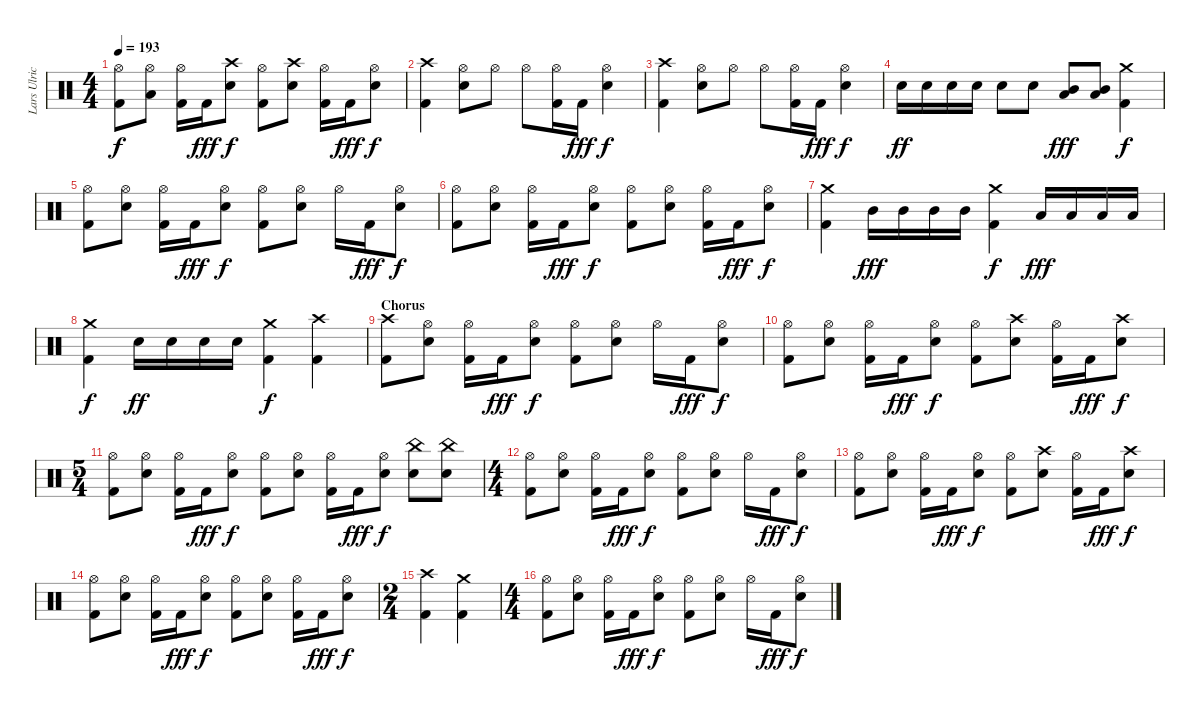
\track ("Lars Ulrich - Drums" "Lars Ulric") {instrument percussion}
\staff {score}
\articulation defaults
\ts (4 4)
\tempo 193
\clef neutral
\ks c
("Hi-Hat (open)" "Kick (hit) 2").8{dy f} ("Hi-Hat (open)" "Low Floor Tom (hit)").8 ("Hi-Hat (open)" "Kick (hit) 2").16 "Kick (hit) 2".16{dy fff} ("Crash high (hit)" "Snare (hit) 2").8{dy f} ("Hi-Hat (open)" "Kick (hit) 2").8 ("Crash high (hit)" "Snare (hit) 2").8 ("Hi-Hat (open)" "Kick (hit) 2").16 "Kick (hit) 2".16{dy fff} ("Hi-Hat (open)" "Snare (hit) 2").8{dy f} |
("Crash high (hit)" "Kick (hit) 2").4 ("Hi-Hat (open)" "Snare (hit) 2").8 "Hi-Hat (open)".8 "Hi-Hat (open)".8 ("Hi-Hat (open)" "Kick (hit) 2").16 "Kick (hit) 2".16{dy fff} ("Hi-Hat (open)" "Snare (hit) 2").4{dy f} |
("Crash high (hit)" "Kick (hit) 2").4 ("Hi-Hat (open)" "Snare (hit) 2").8 "Hi-Hat (open)".8 "Hi-Hat (open)".8 ("Hi-Hat (open)" "Kick (hit) 2").16 "Kick (hit) 2".16{dy fff} ("Hi-Hat (open)" "Snare (hit) 2").4{dy f} |
"Snare (hit) 2".16{dy ff} "Snare (hit) 2".16 "Snare (hit) 2".16 "Snare (hit) 2".16 "Snare (hit) 2".8 "Snare (hit) 2".8 ("Mid Tom (hit)" "Low Tom (hit)").8{dy fff} ("Mid Tom (hit)" "Low Tom (hit)").8 ("Crash medium (hit)" "Kick (hit) 2").4{dy f} |
("Hi-Hat (open)" "Kick (hit) 2").8 ("Hi-Hat (open)" "Snare (hit) 2").8 ("Hi-Hat (open)" "Kick (hit) 2").16 "Kick (hit) 2".16{dy fff} ("Hi-Hat (open)" "Snare (hit) 2").8{dy f} ("Hi-Hat (open)" "Kick (hit) 2").8 ("Hi-Hat (open)" "Snare (hit) 2").8 "Hi-Hat (open)".16 "Kick (hit) 2".16{dy fff} ("Hi-Hat (open)" "Snare (hit) 2").8{dy f} |
("Hi-Hat (open)" "Kick (hit) 2").8 ("Hi-Hat (open)" "Snare (hit) 2").8 ("Hi-Hat (open)" "Kick (hit) 2").16 "Kick (hit) 2".16{dy fff} ("Hi-Hat (open)" "Snare (hit) 2").8{dy f} ("Hi-Hat (open)" "Kick (hit) 2").8 ("Hi-Hat (open)" "Snare (hit) 2").8 ("Hi-Hat (open)" "Kick (hit) 2").16 "Kick (hit) 2".16{dy fff} ("Hi-Hat (open)" "Snare (hit) 2").8{dy f} |
("Crash medium (hit)" "Kick (hit) 2").4 "Mid Tom (hit)".16{dy fff} "Mid Tom (hit)".16 "Mid Tom (hit)".16 "Mid Tom (hit)".16 ("Crash medium (hit)" "Kick (hit) 2").4{dy f} "Low Tom (hit)".16{dy fff} "Low Tom (hit)".16 "Low Tom (hit)".16 "Low Tom (hit)".16 |
("Crash medium (hit)" "Kick (hit) 2").4{dy f} "Snare (hit) 2".16{dy ff} "Snare (hit) 2".16 "Snare (hit) 2".16 "Snare (hit) 2".16 ("Crash medium (hit)" "Kick (hit) 2").4{dy f} ("Crash high (hit)" "Kick (hit) 2").4 |
\section ("" "Chorus")
("Crash high (hit)" "Kick (hit) 2").8 ("Hi-Hat (open)" "Snare (hit) 2").8 ("Hi-Hat (open)" "Kick (hit) 2").16 "Kick (hit) 2".16{dy fff} ("Hi-Hat (open)" "Snare (hit) 2").8{dy f} ("Hi-Hat (open)" "Kick (hit) 2").8 ("Hi-Hat (open)" "Snare (hit) 2").8 "Hi-Hat (open)".16 "Kick (hit) 2".16{dy fff} ("Hi-Hat (open)" "Snare (hit) 2").8{dy f} |
("Hi-Hat (open)" "Kick (hit) 2").8 ("Hi-Hat (open)" "Snare (hit) 2").8 ("Hi-Hat (open)" "Kick (hit) 2").16 "Kick (hit) 2".16{dy fff} ("Hi-Hat (open)" "Snare (hit) 2").8{dy f} ("Hi-Hat (open)" "Kick (hit) 2").8 ("Crash high (hit)" "Snare (hit) 2").8 ("Hi-Hat (open)" "Kick (hit) 2").16 "Kick (hit) 2".16{dy fff} ("Crash high (hit)" "Snare (hit) 2").8{dy f} |
\ts (5 4)
("Hi-Hat (open)" "Kick (hit) 2").8 ("Hi-Hat (open)" "Snare (hit) 2").8 ("Hi-Hat (open)" "Kick (hit) 2").16 "Kick (hit) 2".16{dy fff} ("Hi-Hat (open)" "Snare (hit) 2").8{dy f} ("Hi-Hat (open)" "Kick (hit) 2").8 ("Hi-Hat (open)" "Snare (hit) 2").8 ("Hi-Hat (open)" "Kick (hit) 2").16 "Kick (hit) 2".16{dy fff} ("Hi-Hat (open)" "Snare (hit) 2").8{dy f} ("China (hit)" "Snare (hit) 2").8 ("China (hit)" "Snare (hit) 2").8 |
\ts (4 4)
("Hi-Hat (open)" "Kick (hit) 2").8 ("Hi-Hat (open)" "Snare (hit) 2").8 ("Hi-Hat (open)" "Kick (hit) 2").16 "Kick (hit) 2".16{dy fff} ("Hi-Hat (open)" "Snare (hit) 2").8{dy f} ("Hi-Hat (open)" "Kick (hit) 2").8 ("Hi-Hat (open)" "Snare (hit) 2").8 "Hi-Hat (open)".16 "Kick (hit) 2".16{dy fff} ("Hi-Hat (open)" "Snare (hit) 2").8{dy f} |
("Hi-Hat (open)" "Kick (hit) 2").8 ("Hi-Hat (open)" "Snare (hit) 2").8 ("Hi-Hat (open)" "Kick (hit) 2").16 "Kick (hit) 2".16{dy fff} ("Hi-Hat (open)" "Snare (hit) 2").8{dy f} ("Hi-Hat (open)" "Kick (hit) 2").8 ("Crash high (hit)" "Snare (hit) 2").8 ("Hi-Hat (open)" "Kick (hit) 2").16 "Kick (hit) 2".16{dy fff} ("Crash high (hit)" "Snare (hit) 2").8{dy f} |
("Hi-Hat (open)" "Kick (hit) 2").8 ("Hi-Hat (open)" "Snare (hit) 2").8 ("Hi-Hat (open)" "Kick (hit) 2").16 "Kick (hit) 2".16{dy fff} ("Hi-Hat (open)" "Snare (hit) 2").8{dy f} ("Hi-Hat (open)" "Kick (hit) 2").8 ("Hi-Hat (open)" "Snare (hit) 2").8 ("Hi-Hat (open)" "Kick (hit) 2").16 "Kick (hit) 2".16{dy fff} ("Hi-Hat (open)" "Snare (hit) 2").8{dy f} |
\ts (2 4)
("Crash high (hit)" "Kick (hit) 2").4 ("Crash medium (hit)" "Kick (hit) 2").4 |
\ts (4 4)
("Hi-Hat (open)" "Kick (hit) 2").8 ("Hi-Hat (open)" "Snare (hit) 2").8 ("Hi-Hat (open)" "Kick (hit) 2").16 "Kick (hit) 2".16{dy fff} ("Hi-Hat (open)" "Snare (hit) 2").8{dy f} ("Hi-Hat (open)" "Kick (hit) 2").8 ("Hi-Hat (open)" "Snare (hit) 2").8 "Hi-Hat (open)".16 "Kick (hit) 2".16{dy fff} ("Hi-Hat (open)" "Snare (hit) 2").8{dy f}
